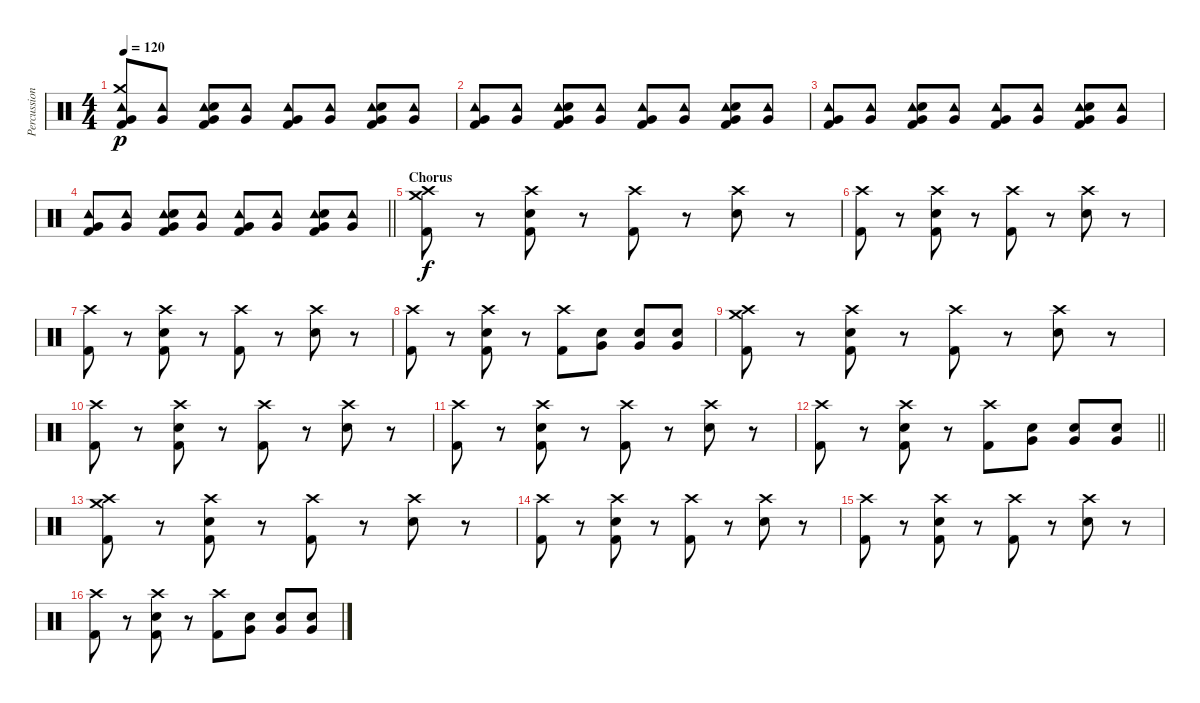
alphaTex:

\track ("Percussion" "Percussion") {instrument percussion}
\staff {score}
\articulation defaults
\ts (4 4)
\tempo 120
\clef neutral
\ks c
("Tambourine (hit)" "Crash medium (hit)" "Very Low Tom (hit)" "Kick (hit) 2").8{dy p} ("Tambourine (hit)" "Very Low Tom (hit)").8 ("Tambourine (hit)" "Very Low Tom (hit)" "Snare (hit) 2" "Kick (hit) 2").8 ("Tambourine (hit)" "Very Low Tom (hit)").8 ("Tambourine (hit)" "Very Low Tom (hit)" "Kick (hit) 2").8 ("Tambourine (hit)" "Very Low Tom (hit)").8 ("Tambourine (hit)" "Very Low Tom (hit)" "Snare (hit) 2" "Kick (hit) 2").8 ("Tambourine (hit)" "Very Low Tom (hit)").8 |
("Tambourine (hit)" "Very Low Tom (hit)" "Kick (hit) 2").8 ("Tambourine (hit)" "Very Low Tom (hit)").8 ("Tambourine (hit)" "Very Low Tom (hit)" "Snare (hit) 2" "Kick (hit) 2").8 ("Tambourine (hit)" "Very Low Tom (hit)").8 ("Tambourine (hit)" "Very Low Tom (hit)" "Kick (hit) 2").8 ("Tambourine (hit)" "Very Low Tom (hit)").8 ("Tambourine (hit)" "Very Low Tom (hit)" "Snare (hit) 2" "Kick (hit) 2").8 ("Tambourine (hit)" "Very Low Tom (hit)").8 |
("Tambourine (hit)" "Very Low Tom (hit)" "Kick (hit) 2").8 ("Tambourine (hit)" "Very Low Tom (hit)").8 ("Tambourine (hit)" "Very Low Tom (hit)" "Snare (hit) 2" "Kick (hit) 2").8 ("Tambourine (hit)" "Very Low Tom (hit)").8 ("Tambourine (hit)" "Very Low Tom (hit)" "Kick (hit) 2").8 ("Tambourine (hit)" "Very Low Tom (hit)").8 ("Tambourine (hit)" "Very Low Tom (hit)" "Snare (hit) 2" "Kick (hit) 2").8 ("Tambourine (hit)" "Very Low Tom (hit)").8 |
\barLineRight lightlight
("Tambourine (hit)" "Very Low Tom (hit)" "Kick (hit) 2").8 ("Tambourine (hit)" "Very Low Tom (hit)").8 ("Tambourine (hit)" "Very Low Tom (hit)" "Snare (hit) 2" "Kick (hit) 2").8 ("Tambourine (hit)" "Very Low Tom (hit)").8 ("Tambourine (hit)" "Very Low Tom (hit)" "Kick (hit) 2").8 ("Tambourine (hit)" "Very Low Tom (hit)").8 ("Tambourine (hit)" "Very Low Tom (hit)" "Snare (hit) 2" "Kick (hit) 2").8 ("Tambourine (hit)" "Very Low Tom (hit)").8 |
\section ("" "Chorus")
("Crash medium (hit)" "Crash high (hit)" "Kick (hit) 2").8{dy f} r.8 ("Crash high (hit)" "Snare (hit) 2" "Kick (hit) 2").8 r.8 ("Crash high (hit)" "Kick (hit) 2").8 r.8 ("Crash high (hit)" "Snare (hit) 2").8 r.8 |
("Crash high (hit)" "Kick (hit) 2").8 r.8 ("Crash high (hit)" "Snare (hit) 2" "Kick (hit) 2").8 r.8 ("Crash high (hit)" "Kick (hit) 2").8 r.8 ("Crash high (hit)" "Snare (hit) 2").8 r.8 |
("Crash high (hit)" "Kick (hit) 2").8 r.8 ("Crash high (hit)" "Snare (hit) 2" "Kick (hit) 2").8 r.8 ("Crash high (hit)" "Kick (hit) 2").8 r.8 ("Crash high (hit)" "Snare (hit) 2").8 r.8 |
("Crash high (hit)" "Kick (hit) 2").8 r.8 ("Crash high (hit)" "Snare (hit) 2" "Kick (hit) 2").8 r.8 ("Crash high (hit)" "Kick (hit) 2").8 ("Very Low Tom (hit)" "Snare (hit) 2").8 ("Very Low Tom (hit)" "Snare (hit) 2").8 ("Very Low Tom (hit)" "Snare (hit) 2").8 |
("Crash medium (hit)" "Crash high (hit)" "Kick (hit) 2").8 r.8 ("Crash high (hit)" "Snare (hit) 2" "Kick (hit) 2").8 r.8 ("Crash high (hit)" "Kick (hit) 2").8 r.8 ("Crash high (hit)" "Snare (hit) 2").8 r.8 |
("Crash high (hit)" "Kick (hit) 2").8 r.8 ("Crash high (hit)" "Snare (hit) 2" "Kick (hit) 2").8 r.8 ("Crash high (hit)" "Kick (hit) 2").8 r.8 ("Crash high (hit)" "Snare (hit) 2").8 r.8 |
("Crash high (hit)" "Kick (hit) 2").8 r.8 ("Crash high (hit)" "Snare (hit) 2" "Kick (hit) 2").8 r.8 ("Crash high (hit)" "Kick (hit) 2").8 r.8 ("Crash high (hit)" "Snare (hit) 2").8 r.8 |
\barLineRight lightlight
("Crash high (hit)" "Kick (hit) 2").8 r.8 ("Crash high (hit)" "Snare (hit) 2" "Kick (hit) 2").8 r.8 ("Crash high (hit)" "Kick (hit) 2").8 ("Very Low Tom (hit)" "Snare (hit) 2").8 ("Very Low Tom (hit)" "Snare (hit) 2").8 ("Very Low Tom (hit)" "Snare (hit) 2").8 |
("Crash medium (hit)" "Crash high (hit)" "Kick (hit) 2").8 r.8 ("Crash high (hit)" "Snare (hit) 2" "Kick (hit) 2").8 r.8 ("Crash high (hit)" "Kick (hit) 2").8 r.8 ("Crash high (hit)" "Snare (hit) 2").8 r.8 |
("Crash high (hit)" "Kick (hit) 2").8 r.8 ("Crash high (hit)" "Snare (hit) 2" "Kick (hit) 2").8 r.8 ("Crash high (hit)" "Kick (hit) 2").8 r.8 ("Crash high (hit)" "Snare (hit) 2").8 r.8 |
("Crash high (hit)" "Kick (hit) 2").8 r.8 ("Crash high (hit)" "Snare (hit) 2" "Kick (hit) 2").8 r.8 ("Crash high (hit)" "Kick (hit) 2").8 r.8 ("Crash high (hit)" "Snare (hit) 2").8 r.8 |
("Crash high (hit)" "Kick (hit) 2").8 r.8 ("Crash high (hit)" "Snare (hit) 2" "Kick (hit) 2").8 r.8 ("Crash high (hit)" "Kick (hit) 2").8 ("Very Low Tom (hit)" "Snare (hit) 2").8 ("Very Low Tom (hit)" "Snare (hit) 2").8 ("Very Low Tom (hit)" "Snare (hit) 2").8
